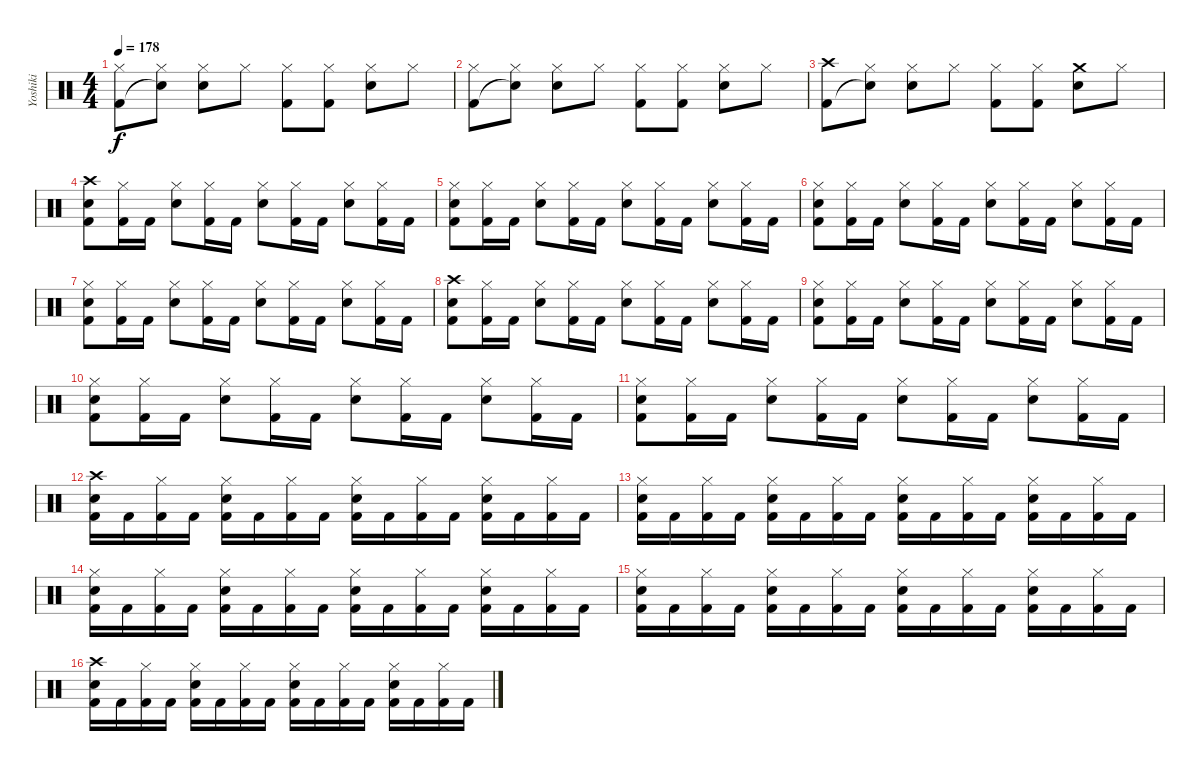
\track ("Yoshiki" "Yoshiki") {instrument percussion}
\staff {score}
\articulation defaults
\ts (4 4)
\tempo 178
\clef neutral
\ks c
("Hi-Hat (closed)" "Kick (hit) 2").8{dy f} ("Hi-Hat (closed)" "Snare (hit)"{t}).8 ("Hi-Hat (closed)" "Snare (hit) 2").8 "Hi-Hat (closed)".8 ("Hi-Hat (closed)" "Kick (hit) 2").8 ("Hi-Hat (closed)" "Kick (hit) 2").8 ("Hi-Hat (closed)" "Snare (hit) 2").8 "Hi-Hat (closed)".8 |
("Hi-Hat (closed)" "Kick (hit) 2").8 ("Hi-Hat (closed)" "Snare (hit)"{t}).8 ("Hi-Hat (closed)" "Snare (hit) 2").8 "Hi-Hat (closed)".8 ("Hi-Hat (closed)" "Kick (hit) 2").8 ("Hi-Hat (closed)" "Kick (hit) 2").8 ("Hi-Hat (closed)" "Snare (hit) 2").8 "Hi-Hat (closed)".8 |
("Crash high (hit)" "Kick (hit) 2").8 ("Hi-Hat (closed)" "Snare (hit)"{t}).8 ("Hi-Hat (closed)" "Snare (hit) 2").8 "Hi-Hat (closed)".8 ("Hi-Hat (closed)" "Kick (hit) 2").8 ("Hi-Hat (closed)" "Kick (hit) 2").8 ("Crash medium (hit)" "Snare (hit) 2").8 "Hi-Hat (closed)".8 |
("Crash high (hit)" "Snare (hit) 2" "Kick (hit) 2").8 ("Hi-Hat (closed)" "Kick (hit) 2").16 "Kick (hit) 2".16 ("Hi-Hat (closed)" "Snare (hit) 2").8 ("Hi-Hat (closed)" "Kick (hit) 2").16 "Kick (hit) 2".16 ("Hi-Hat (closed)" "Snare (hit) 2").8 ("Hi-Hat (closed)" "Kick (hit) 2").16 "Kick (hit) 2".16 ("Hi-Hat (closed)" "Snare (hit) 2").8 ("Hi-Hat (closed)" "Kick (hit) 2").16 "Kick (hit) 2".16 |
("Hi-Hat (closed)" "Snare (hit) 2" "Kick (hit) 2").8 ("Hi-Hat (closed)" "Kick (hit) 2").16 "Kick (hit) 2".16 ("Hi-Hat (closed)" "Snare (hit) 2").8 ("Hi-Hat (closed)" "Kick (hit) 2").16 "Kick (hit) 2".16 ("Hi-Hat (closed)" "Snare (hit) 2").8 ("Hi-Hat (closed)" "Kick (hit) 2").16 "Kick (hit) 2".16 ("Hi-Hat (closed)" "Snare (hit) 2").8 ("Hi-Hat (closed)" "Kick (hit) 2").16 "Kick (hit) 2".16 |
("Hi-Hat (closed)" "Snare (hit) 2" "Kick (hit) 2").8 ("Hi-Hat (closed)" "Kick (hit) 2").16 "Kick (hit) 2".16 ("Hi-Hat (closed)" "Snare (hit) 2").8 ("Hi-Hat (closed)" "Kick (hit) 2").16 "Kick (hit) 2".16 ("Hi-Hat (closed)" "Snare (hit) 2").8 ("Hi-Hat (closed)" "Kick (hit) 2").16 "Kick (hit) 2".16 ("Hi-Hat (closed)" "Snare (hit) 2").8 ("Hi-Hat (closed)" "Kick (hit) 2").16 "Kick (hit) 2".16 |
("Hi-Hat (closed)" "Snare (hit) 2" "Kick (hit) 2").8 ("Hi-Hat (closed)" "Kick (hit) 2").16 "Kick (hit) 2".16 ("Hi-Hat (closed)" "Snare (hit) 2").8 ("Hi-Hat (closed)" "Kick (hit) 2").16 "Kick (hit) 2".16 ("Hi-Hat (closed)" "Snare (hit) 2").8 ("Hi-Hat (closed)" "Kick (hit) 2").16 "Kick (hit) 2".16 ("Hi-Hat (closed)" "Snare (hit) 2").8 ("Hi-Hat (closed)" "Kick (hit) 2").16 "Kick (hit) 2".16 |
("Crash high (hit)" "Snare (hit) 2" "Kick (hit) 2").8 ("Hi-Hat (closed)" "Kick (hit) 2").16 "Kick (hit) 2".16 ("Hi-Hat (closed)" "Snare (hit) 2").8 ("Hi-Hat (closed)" "Kick (hit) 2").16 "Kick (hit) 2".16 ("Hi-Hat (closed)" "Snare (hit) 2").8 ("Hi-Hat (closed)" "Kick (hit) 2").16 "Kick (hit) 2".16 ("Hi-Hat (closed)" "Snare (hit) 2").8 ("Hi-Hat (closed)" "Kick (hit) 2").16 "Kick (hit) 2".16 |
("Hi-Hat (closed)" "Snare (hit) 2" "Kick (hit) 2").8 ("Hi-Hat (closed)" "Kick (hit) 2").16 "Kick (hit) 2".16 ("Hi-Hat (closed)" "Snare (hit) 2").8 ("Hi-Hat (closed)" "Kick (hit) 2").16 "Kick (hit) 2".16 ("Hi-Hat (closed)" "Snare (hit) 2").8 ("Hi-Hat (closed)" "Kick (hit) 2").16 "Kick (hit) 2".16 ("Hi-Hat (closed)" "Snare (hit) 2").8 ("Hi-Hat (closed)" "Kick (hit) 2").16 "Kick (hit) 2".16 |
("Hi-Hat (closed)" "Snare (hit) 2" "Kick (hit) 2").8 ("Hi-Hat (closed)" "Kick (hit) 2").16 "Kick (hit) 2".16 ("Hi-Hat (closed)" "Snare (hit) 2").8 ("Hi-Hat (closed)" "Kick (hit) 2").16 "Kick (hit) 2".16 ("Hi-Hat (closed)" "Snare (hit) 2").8 ("Hi-Hat (closed)" "Kick (hit) 2").16 "Kick (hit) 2".16 ("Hi-Hat (closed)" "Snare (hit) 2").8 ("Hi-Hat (closed)" "Kick (hit) 2").16 "Kick (hit) 2".16 |
("Hi-Hat (closed)" "Snare (hit) 2" "Kick (hit) 2").8 ("Hi-Hat (closed)" "Kick (hit) 2").16 "Kick (hit) 2".16 ("Hi-Hat (closed)" "Snare (hit) 2").8 ("Hi-Hat (closed)" "Kick (hit) 2").16 "Kick (hit) 2".16 ("Hi-Hat (closed)" "Snare (hit) 2").8 ("Hi-Hat (closed)" "Kick (hit) 2").16 "Kick (hit) 2".16 ("Hi-Hat (closed)" "Snare (hit) 2").8 ("Hi-Hat (closed)" "Kick (hit) 2").16 "Kick (hit) 2".16 |
("Crash high (hit)" "Snare (hit) 2" "Kick (hit) 2").16{volume 8} "Kick (hit) 2".16 ("Hi-Hat (closed)" "Kick (hit) 2").16 "Kick (hit) 2".16 ("Hi-Hat (closed)" "Snare (hit) 2" "Kick (hit) 2").16 "Kick (hit) 2".16 ("Hi-Hat (closed)" "Kick (hit) 2").16 "Kick (hit) 2".16 ("Hi-Hat (closed)" "Snare (hit) 2" "Kick (hit) 2").16 "Kick (hit) 2".16 ("Hi-Hat (closed)" "Kick (hit) 2").16 "Kick (hit) 2".16 ("Hi-Hat (closed)" "Snare (hit) 2" "Kick (hit) 2").16 "Kick (hit) 2".16 ("Hi-Hat (closed)" "Kick (hit) 2").16 "Kick (hit) 2".16 |
("Hi-Hat (closed)" "Snare (hit) 2" "Kick (hit) 2").16 "Kick (hit) 2".16 ("Hi-Hat (closed)" "Kick (hit) 2").16 "Kick (hit) 2".16 ("Hi-Hat (closed)" "Snare (hit) 2" "Kick (hit) 2").16 "Kick (hit) 2".16 ("Hi-Hat (closed)" "Kick (hit) 2").16 "Kick (hit) 2".16 ("Hi-Hat (closed)" "Snare (hit) 2" "Kick (hit) 2").16 "Kick (hit) 2".16 ("Hi-Hat (closed)" "Kick (hit) 2").16 "Kick (hit) 2".16 ("Hi-Hat (closed)" "Snare (hit) 2" "Kick (hit) 2").16 "Kick (hit) 2".16 ("Hi-Hat (closed)" "Kick (hit) 2").16 "Kick (hit) 2".16 |
("Hi-Hat (closed)" "Snare (hit) 2" "Kick (hit) 2").16 "Kick (hit) 2".16 ("Hi-Hat (closed)" "Kick (hit) 2").16 "Kick (hit) 2".16 ("Hi-Hat (closed)" "Snare (hit) 2" "Kick (hit) 2").16 "Kick (hit) 2".16 ("Hi-Hat (closed)" "Kick (hit) 2").16 "Kick (hit) 2".16 ("Hi-Hat (closed)" "Snare (hit) 2" "Kick (hit) 2").16 "Kick (hit) 2".16 ("Hi-Hat (closed)" "Kick (hit) 2").16 "Kick (hit) 2".16 ("Hi-Hat (closed)" "Snare (hit) 2" "Kick (hit) 2").16 "Kick (hit) 2".16 ("Hi-Hat (closed)" "Kick (hit) 2").16 "Kick (hit) 2".16 |
("Hi-Hat (closed)" "Snare (hit) 2" "Kick (hit) 2").16 "Kick (hit) 2".16 ("Hi-Hat (closed)" "Kick (hit) 2").16 "Kick (hit) 2".16 ("Hi-Hat (closed)" "Snare (hit) 2" "Kick (hit) 2").16 "Kick (hit) 2".16 ("Hi-Hat (closed)" "Kick (hit) 2").16 "Kick (hit) 2".16 ("Hi-Hat (closed)" "Snare (hit) 2" "Kick (hit) 2").16 "Kick (hit) 2".16 ("Hi-Hat (closed)" "Kick (hit) 2").16 "Kick (hit) 2".16 ("Hi-Hat (closed)" "Snare (hit) 2" "Kick (hit) 2").16 "Kick (hit) 2".16 ("Hi-Hat (closed)" "Kick (hit) 2").16 "Kick (hit) 2".16 |
("Crash high (hit)" "Snare (hit) 2" "Kick (hit) 2").16{volume 0} "Kick (hit) 2".16 ("Hi-Hat (closed)" "Kick (hit) 2").16 "Kick (hit) 2".16 ("Hi-Hat (closed)" "Snare (hit) 2" "Kick (hit) 2").16 "Kick (hit) 2".16 ("Hi-Hat (closed)" "Kick (hit) 2").16 "Kick (hit) 2".16 ("Hi-Hat (closed)" "Snare (hit) 2" "Kick (hit) 2").16 "Kick (hit) 2".16 ("Hi-Hat (closed)" "Kick (hit) 2").16 "Kick (hit) 2".16 ("Hi-Hat (closed)" "Snare (hit) 2" "Kick (hit) 2").16 "Kick (hit) 2".16 ("Hi-Hat (closed)" "Kick (hit) 2").16 "Kick (hit) 2".16
